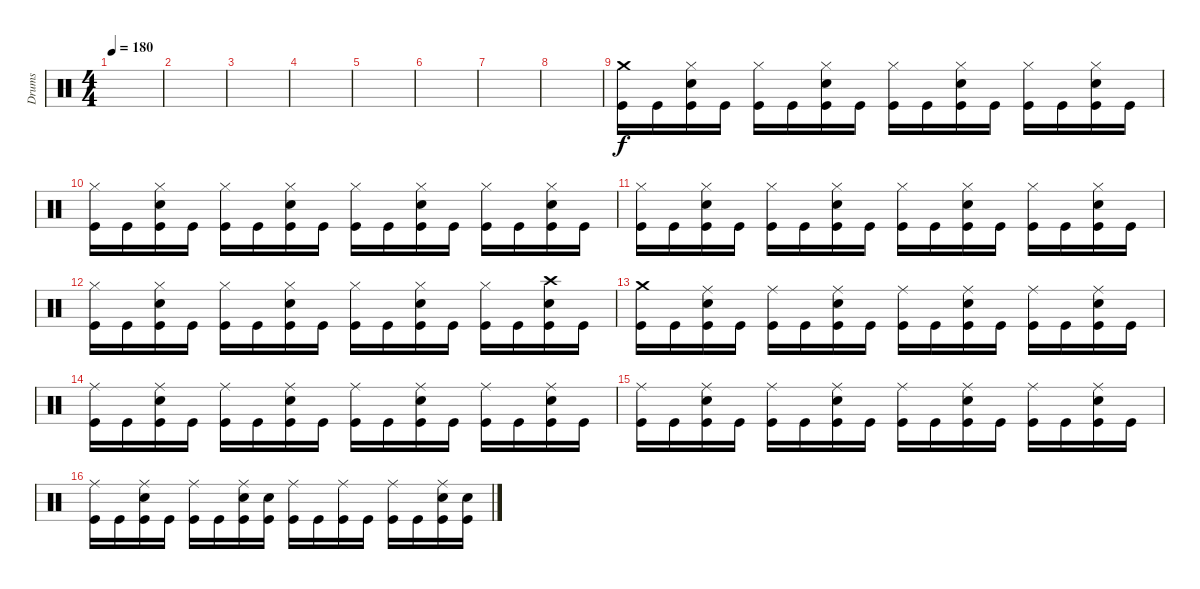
\track ("Drums" "Drums") {instrument percussion}
\staff {score}
\articulation defaults
\ts (4 4)
\tempo 180
\clef neutral
\ks c
|
|
|
|
|
|
|
|
("Crash medium (hit)" "Kick (hit)").16 "Kick (hit)".16 ("Hi-Hat (closed)" "Snare (hit) 2" "Kick (hit)").16 "Kick (hit)".16 ("Hi-Hat (closed)" "Kick (hit)").16 "Kick (hit)".16 ("Hi-Hat (closed)" "Snare (hit) 2" "Kick (hit)").16 "Kick (hit)".16 ("Hi-Hat (closed)" "Kick (hit)").16 "Kick (hit)".16 ("Hi-Hat (closed)" "Snare (hit) 2" "Kick (hit)").16 "Kick (hit)".16 ("Hi-Hat (closed)" "Kick (hit)").16 "Kick (hit)".16 ("Hi-Hat (closed)" "Snare (hit) 2" "Kick (hit)").16 "Kick (hit)".16 |
("Hi-Hat (closed)" "Kick (hit)").16 "Kick (hit)".16 ("Hi-Hat (closed)" "Snare (hit) 2" "Kick (hit)").16 "Kick (hit)".16 ("Hi-Hat (closed)" "Kick (hit)").16 "Kick (hit)".16 ("Hi-Hat (closed)" "Snare (hit) 2" "Kick (hit)").16 "Kick (hit)".16 ("Hi-Hat (closed)" "Kick (hit)").16 "Kick (hit)".16 ("Hi-Hat (closed)" "Snare (hit) 2" "Kick (hit)").16 "Kick (hit)".16 ("Hi-Hat (closed)" "Kick (hit)").16 "Kick (hit)".16 ("Hi-Hat (closed)" "Snare (hit) 2" "Kick (hit)").16 "Kick (hit)".16 |
("Hi-Hat (closed)" "Kick (hit)").16 "Kick (hit)".16 ("Hi-Hat (closed)" "Snare (hit) 2" "Kick (hit)").16 "Kick (hit)".16 ("Hi-Hat (closed)" "Kick (hit)").16 "Kick (hit)".16 ("Hi-Hat (closed)" "Snare (hit) 2" "Kick (hit)").16 "Kick (hit)".16 ("Hi-Hat (closed)" "Kick (hit)").16 "Kick (hit)".16 ("Hi-Hat (closed)" "Snare (hit) 2" "Kick (hit)").16 "Kick (hit)".16 ("Hi-Hat (closed)" "Kick (hit)").16 "Kick (hit)".16 ("Hi-Hat (closed)" "Snare (hit) 2" "Kick (hit)").16 "Kick (hit)".16 |
("Hi-Hat (closed)" "Kick (hit)").16 "Kick (hit)".16 ("Hi-Hat (closed)" "Snare (hit) 2" "Kick (hit)").16 "Kick (hit)".16 ("Hi-Hat (closed)" "Kick (hit)").16 "Kick (hit)".16 ("Hi-Hat (closed)" "Snare (hit) 2" "Kick (hit)").16 "Kick (hit)".16 ("Hi-Hat (closed)" "Kick (hit)").16 "Kick (hit)".16 ("Hi-Hat (closed)" "Snare (hit) 2" "Kick (hit)").16 "Kick (hit)".16 ("Hi-Hat (closed)" "Kick (hit)").16 "Kick (hit)".16 ("Crash high (hit)" "Snare (hit) 2" "Kick (hit)").16 "Kick (hit)".16 |
("Crash medium (hit)" "Kick (hit)").16 "Kick (hit)".16 ("Ride (middle)" "Snare (hit) 2" "Kick (hit)").16 "Kick (hit)".16 ("Ride (middle)" "Kick (hit)").16 "Kick (hit)".16 ("Ride (middle)" "Snare (hit) 2" "Kick (hit)").16 "Kick (hit)".16 ("Ride (middle)" "Kick (hit)").16 "Kick (hit)".16 ("Ride (middle)" "Snare (hit) 2" "Kick (hit)").16 "Kick (hit)".16 ("Ride (middle)" "Kick (hit)").16 "Kick (hit)".16 ("Ride (middle)" "Snare (hit) 2" "Kick (hit)").16 "Kick (hit)".16 |
("Ride (middle)" "Kick (hit)").16 "Kick (hit)".16 ("Ride (middle)" "Snare (hit) 2" "Kick (hit)").16 "Kick (hit)".16 ("Ride (middle)" "Kick (hit)").16 "Kick (hit)".16 ("Ride (middle)" "Snare (hit) 2" "Kick (hit)").16 "Kick (hit)".16 ("Ride (middle)" "Kick (hit)").16 "Kick (hit)".16 ("Ride (middle)" "Snare (hit) 2" "Kick (hit)").16 "Kick (hit)".16 ("Ride (middle)" "Kick (hit)").16 "Kick (hit)".16 ("Ride (middle)" "Snare (hit) 2" "Kick (hit)").16 "Kick (hit)".16 |
("Ride (middle)" "Kick (hit)").16 "Kick (hit)".16 ("Ride (middle)" "Snare (hit) 2" "Kick (hit)").16 "Kick (hit)".16 ("Ride (middle)" "Kick (hit)").16 "Kick (hit)".16 ("Ride (middle)" "Snare (hit) 2" "Kick (hit)").16 "Kick (hit)".16 ("Ride (middle)" "Kick (hit)").16 "Kick (hit)".16 ("Ride (middle)" "Snare (hit) 2" "Kick (hit)").16 "Kick (hit)".16 ("Ride (middle)" "Kick (hit)").16 "Kick (hit)".16 ("Ride (middle)" "Snare (hit) 2" "Kick (hit)").16 "Kick (hit)".16 |
("Ride (middle)" "Kick (hit)").16 "Kick (hit)".16 ("Ride (middle)" "Snare (hit) 2" "Kick (hit)").16 "Kick (hit)".16 ("Ride (middle)" "Kick (hit)").16 "Kick (hit)".16 ("Ride (middle)" "Snare (hit) 2" "Kick (hit)").16 ("Snare (hit) 2" "Kick (hit)").16 ("Ride (middle)" "Kick (hit)").16 "Kick (hit)".16 ("Ride (middle)" "Kick (hit)").16 "Kick (hit)".16 ("Ride (middle)" "Kick (hit)").16 "Kick (hit)".16 ("Ride (middle)" "Snare (hit) 2" "Kick (hit)").16 ("Snare (hit) 2" "Kick (hit)").16
